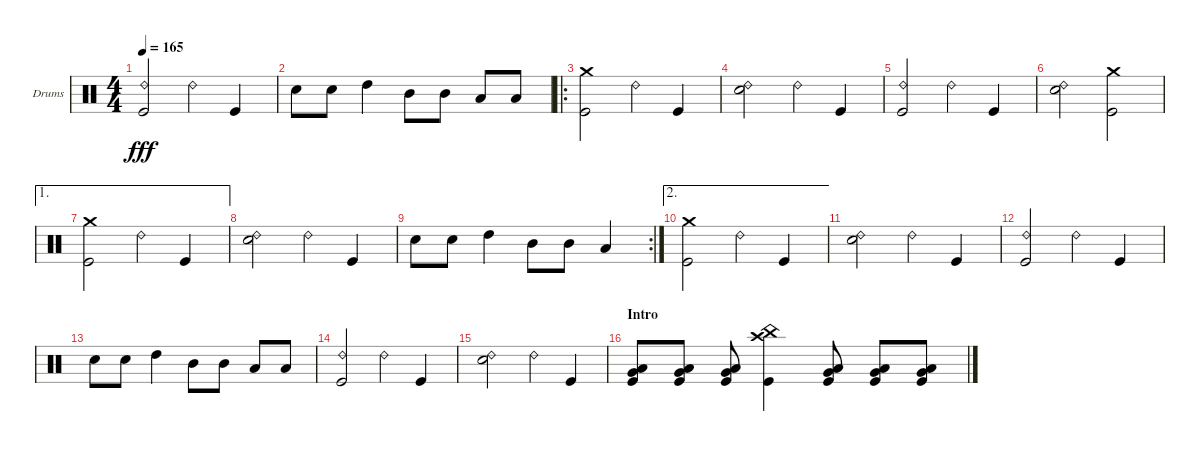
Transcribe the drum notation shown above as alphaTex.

\defaultSystemsLayout 4
\bracketExtendMode groupsimilarinstruments
\firstSystemTrackNameOrientation horizontal
\otherSystemsTrackNameOrientation horizontal
\track ("Drums" "Drums") {instrument percussion}
\staff {score}
\articulation defaults
\ts (4 4)
\tempo 165
\clef neutral
\ks c
("Kick (hit)" "Ride (bell) 2").2{dy fff} "Ride (bell) 2".4 "Kick (hit)".4 |
"Snare (hit) 2".8 "Snare (hit) 2".8 "High Tom (hit)".4 "Mid Tom (hit)".8 "Mid Tom (hit)".8 "Low Tom (hit)".8 "Low Tom (hit)".8 |
\ro
("Crash medium (hit)" "Kick (hit)").2 "Ride (bell) 2".4 "Kick (hit)".4 |
("Ride (bell) 2" "Snare (hit) 2").2 "Ride (bell) 2".4 "Kick (hit)".4 |
("Kick (hit)" "Ride (bell) 2").2 "Ride (bell) 2".4 "Kick (hit)".4 |
("Ride (bell) 2" "Snare (hit) 2").2 ("Crash medium (hit)" "Kick (hit)").2 |
\ae 1
("Crash medium (hit)" "Kick (hit)").2 "Ride (bell) 2".4 "Kick (hit)".4 |
("Ride (bell) 2" "Snare (hit) 2").2 "Ride (bell) 2".4 "Kick (hit)".4 |
\rc 2 "Snare (hit) 2".8 "Snare (hit) 2".8 "High Tom (hit)".4 "Mid Tom (hit)".8 "Mid Tom (hit)".8 "Low Tom (hit)".4
|
\ae 2
("Crash medium (hit)" "Kick (hit)").2 "Ride (bell) 2".4 "Kick (hit)".4 |
("Ride (bell) 2" "Snare (hit) 2").2 "Ride (bell) 2".4 "Kick (hit)".4 |
("Kick (hit)" "Ride (bell) 2").2 "Ride (bell) 2".4 "Kick (hit)".4 |
"Snare (hit) 2".8 "Snare (hit) 2".8 "High Tom (hit)".4 "Mid Tom (hit)".8 "Mid Tom (hit)".8 "Low Tom (hit)".8 "Low Tom (hit)".8 |
("Kick (hit)" "Ride (bell) 2").2 "Ride (bell) 2".4 "Kick (hit)".4 |
("Ride (bell) 2" "Snare (hit) 2").2 "Ride (bell) 2".4 "Kick (hit)".4 |
\section ("" "Intro")
("Kick (hit)" "Very Low Tom (hit)" "Low Tom (hit)").8 ("Kick (hit)" "Very Low Tom (hit)" "Low Tom (hit)").8 ("Kick (hit)" "Very Low Tom (hit)" "Low Tom (hit)").8 ("Kick (hit)" "China (hit)" "Crash high (hit)").4 ("Kick (hit)" "Very Low Tom (hit)" "Low Tom (hit)").8 ("Kick (hit)" "Very Low Tom (hit)" "Low Tom (hit)").8 ("Kick (hit)" "Very Low Tom (hit)" "Low Tom (hit)").8
